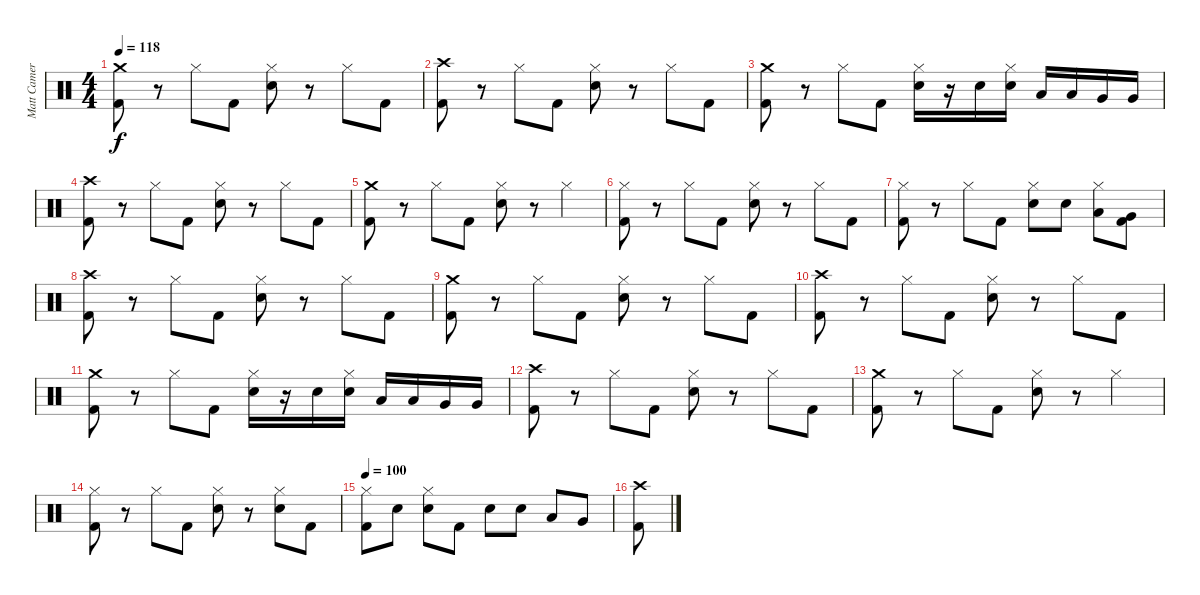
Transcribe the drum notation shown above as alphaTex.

\track ("Matt Cameron" "Matt Camer") {instrument percussion}
\staff {score}
\articulation defaults
\ts (4 4)
\tempo 118
\clef neutral
\ks c
("Crash medium (hit)" "Kick (hit) 2").8{dy f} r.8 "Hi-Hat (closed)".8 "Kick (hit) 2".8 ("Hi-Hat (closed)" "Snare (hit) 2").8 r.8 "Hi-Hat (closed)".8 "Kick (hit) 2".8 |
("Crash high (hit)" "Kick (hit) 2").8 r.8 "Hi-Hat (closed)".8 "Kick (hit) 2".8 ("Hi-Hat (closed)" "Snare (hit) 2").8 r.8 "Hi-Hat (closed)".8 "Kick (hit) 2".8 |
("Crash medium (hit)" "Kick (hit) 2").8 r.8 "Hi-Hat (closed)".8 "Kick (hit) 2".8 ("Hi-Hat (closed)" "Snare (hit) 2").16 r.16 "Snare (hit) 2".16 ("Hi-Hat (closed)" "Snare (hit) 2").16 "Low Tom (hit)".16 "Low Tom (hit)".16 "Very Low Tom (hit)".16 "Very Low Tom (hit)".16 |
("Crash high (hit)" "Kick (hit) 2").8 r.8 "Hi-Hat (closed)".8 "Kick (hit) 2".8 ("Hi-Hat (closed)" "Snare (hit) 2").8 r.8 "Hi-Hat (closed)".8 "Kick (hit) 2".8 |
("Crash medium (hit)" "Kick (hit) 2").8 r.8 "Hi-Hat (closed)".8 "Kick (hit) 2".8 ("Hi-Hat (closed)" "Snare (hit) 2").8 r.8 "Hi-Hat (closed)".4 |
("Hi-Hat (closed)" "Kick (hit) 2").8 r.8 "Hi-Hat (closed)".8 "Kick (hit) 2".8 ("Hi-Hat (closed)" "Snare (hit) 2").8 r.8 "Hi-Hat (closed)".8 "Kick (hit) 2".8 |
("Hi-Hat (closed)" "Kick (hit) 2").8 r.8 "Hi-Hat (closed)".8 "Kick (hit) 2".8 ("Hi-Hat (closed)" "Snare (hit) 2").8 "Snare (hit) 2".8 ("Hi-Hat (closed)" "Low Tom (hit)").8 ("Very Low Tom (hit)" "Kick (hit) 2").8 |
("Crash high (hit)" "Kick (hit) 2").8 r.8 "Hi-Hat (closed)".8 "Kick (hit) 2".8 ("Hi-Hat (closed)" "Snare (hit) 2").8 r.8 "Hi-Hat (closed)".8 "Kick (hit) 2".8 |
("Crash medium (hit)" "Kick (hit) 2").8 r.8 "Hi-Hat (closed)".8 "Kick (hit) 2".8 ("Hi-Hat (closed)" "Snare (hit) 2").8 r.8 "Hi-Hat (closed)".8 "Kick (hit) 2".8 |
("Crash high (hit)" "Kick (hit) 2").8 r.8 "Hi-Hat (closed)".8 "Kick (hit) 2".8 ("Hi-Hat (closed)" "Snare (hit) 2").8 r.8 "Hi-Hat (closed)".8 "Kick (hit) 2".8 |
("Crash medium (hit)" "Kick (hit) 2").8 r.8 "Hi-Hat (closed)".8 "Kick (hit) 2".8 ("Hi-Hat (closed)" "Snare (hit) 2").16 r.16 "Snare (hit) 2".16 ("Hi-Hat (closed)" "Snare (hit) 2").16 "Low Tom (hit)".16 "Low Tom (hit)".16 "Very Low Tom (hit)".16 "Very Low Tom (hit)".16 |
("Crash high (hit)" "Kick (hit) 2").8 r.8 "Hi-Hat (closed)".8 "Kick (hit) 2".8 ("Hi-Hat (closed)" "Snare (hit) 2").8 r.8 "Hi-Hat (closed)".8 "Kick (hit) 2".8 |
("Crash medium (hit)" "Kick (hit) 2").8 r.8 "Hi-Hat (closed)".8 "Kick (hit) 2".8 ("Hi-Hat (closed)" "Snare (hit) 2").8 r.8 "Hi-Hat (closed)".4 |
("Hi-Hat (closed)" "Kick (hit) 2").8 r.8 "Hi-Hat (closed)".8 "Kick (hit) 2".8 ("Hi-Hat (closed)" "Snare (hit) 2").8 r.8 ("Hi-Hat (closed)" "Snare (hit) 2").8 "Kick (hit) 2".8 |
\tempo 100
("Hi-Hat (closed)" "Kick (hit) 2").8 "Snare (hit) 2".8 ("Hi-Hat (closed)" "Snare (hit) 2").8 "Kick (hit) 2".8 "Snare (hit) 2".8 "Snare (hit) 2".8 "Low Tom (hit)".8 "Very Low Tom (hit)".8 |
("Crash high (hit)" "Kick (hit) 2").8
